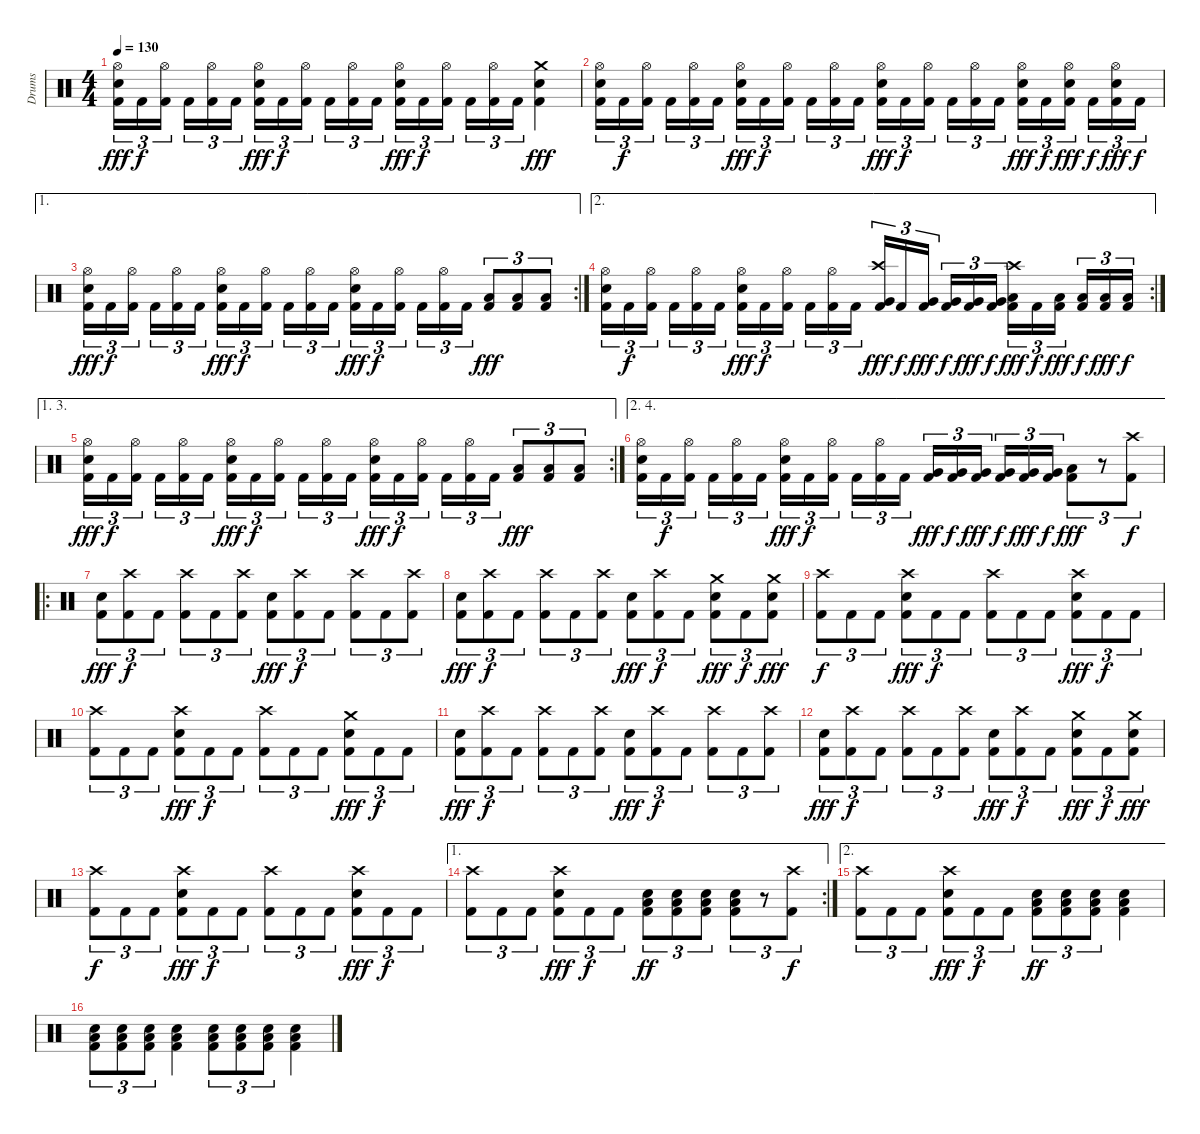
\track ("Drums" "Drums") {instrument percussion}
\staff {score}
\articulation defaults
\ts (4 4)
\tempo 130
\clef neutral
\ks c
("Hi-Hat (open)" "Snare (hit) 2" "Kick (hit) 2").16{tu (3 2) dy fff} "Kick (hit) 2".16{tu (3 2) dy f} ("Hi-Hat (open)" "Kick (hit) 2").16{tu (3 2)} "Kick (hit) 2".16{tu (3 2)} ("Hi-Hat (open)" "Kick (hit) 2").16{tu (3 2)} "Kick (hit) 2".16{tu (3 2)} ("Hi-Hat (open)" "Snare (hit) 2" "Kick (hit) 2").16{tu (3 2) dy fff} "Kick (hit) 2".16{tu (3 2) dy f} ("Hi-Hat (open)" "Kick (hit) 2").16{tu (3 2)} "Kick (hit) 2".16{tu (3 2)} ("Hi-Hat (open)" "Kick (hit) 2").16{tu (3 2)} "Kick (hit) 2".16{tu (3 2)} ("Hi-Hat (open)" "Snare (hit) 2" "Kick (hit) 2").16{tu (3 2) dy fff} "Kick (hit) 2".16{tu (3 2) dy f} ("Hi-Hat (open)" "Kick (hit) 2").16{tu (3 2)} "Kick (hit) 2".16{tu (3 2)} ("Hi-Hat (open)" "Kick (hit) 2").16{tu (3 2)} "Kick (hit) 2".16{tu (3 2)} ("Crash medium (hit)" "Snare (hit) 2" "Kick (hit) 2").4{dy fff} |
("Hi-Hat (open)" "Snare (hit) 2" "Kick (hit) 2").16{tu (3 2)} "Kick (hit) 2".16{tu (3 2) dy f} ("Hi-Hat (open)" "Kick (hit) 2").16{tu (3 2)} "Kick (hit) 2".16{tu (3 2)} ("Hi-Hat (open)" "Kick (hit) 2").16{tu (3 2)} "Kick (hit) 2".16{tu (3 2)} ("Hi-Hat (open)" "Snare (hit) 2" "Kick (hit) 2").16{tu (3 2) dy fff} "Kick (hit) 2".16{tu (3 2) dy f} ("Hi-Hat (open)" "Kick (hit) 2").16{tu (3 2)} "Kick (hit) 2".16{tu (3 2)} ("Hi-Hat (open)" "Kick (hit) 2").16{tu (3 2)} "Kick (hit) 2".16{tu (3 2)} ("Hi-Hat (open)" "Snare (hit) 2" "Kick (hit) 2").16{tu (3 2) dy fff} "Kick (hit) 2".16{tu (3 2) dy f} ("Hi-Hat (open)" "Kick (hit) 2").16{tu (3 2)} "Kick (hit) 2".16{tu (3 2)} ("Hi-Hat (open)" "Kick (hit) 2").16{tu (3 2)} "Kick (hit) 2".16{tu (3 2)} ("Hi-Hat (open)" "Snare (hit) 2" "Kick (hit) 2").16{tu (3 2) dy fff} "Kick (hit) 2".16{tu (3 2) dy f} ("Hi-Hat (open)" "Snare (hit) 2" "Kick (hit) 2").16{tu (3 2) dy fff} "Kick (hit) 2".16{tu (3 2) dy f} ("Hi-Hat (open)" "Snare (hit) 2" "Kick (hit) 2").16{tu (3 2) dy fff} "Kick (hit) 2".16{tu (3 2) dy f} |
\ae 1
\rc 2
("Hi-Hat (open)" "Snare (hit) 2" "Kick (hit) 2").16{tu (3 2) dy fff} "Kick (hit) 2".16{tu (3 2) dy f} ("Hi-Hat (open)" "Kick (hit) 2").16{tu (3 2)} "Kick (hit) 2".16{tu (3 2)} ("Hi-Hat (open)" "Kick (hit) 2").16{tu (3 2)} "Kick (hit) 2".16{tu (3 2)} ("Hi-Hat (open)" "Snare (hit) 2" "Kick (hit) 2").16{tu (3 2) dy fff} "Kick (hit) 2".16{tu (3 2) dy f} ("Hi-Hat (open)" "Kick (hit) 2").16{tu (3 2)} "Kick (hit) 2".16{tu (3 2)} ("Hi-Hat (open)" "Kick (hit) 2").16{tu (3 2)} "Kick (hit) 2".16{tu (3 2)} ("Hi-Hat (open)" "Snare (hit) 2" "Kick (hit) 2").16{tu (3 2) dy fff} "Kick (hit) 2".16{tu (3 2) dy f} ("Hi-Hat (open)" "Kick (hit) 2").16{tu (3 2)} "Kick (hit) 2".16{tu (3 2)} ("Hi-Hat (open)" "Kick (hit) 2").16{tu (3 2)} "Kick (hit) 2".16{tu (3 2)} ("Low Floor Tom (hit)" "Kick (hit) 2").8{tu (3 2) dy fff} ("Low Floor Tom (hit)" "Kick (hit) 2").8{tu (3 2)} ("Low Floor Tom (hit)" "Kick (hit) 2").8{tu (3 2)} |
\ae 2
\rc 2
("Hi-Hat (open)" "Snare (hit) 2" "Kick (hit) 2").16{tu (3 2)} "Kick (hit) 2".16{tu (3 2) dy f} ("Hi-Hat (open)" "Kick (hit) 2").16{tu (3 2)} "Kick (hit) 2".16{tu (3 2)} ("Hi-Hat (open)" "Kick (hit) 2").16{tu (3 2)} "Kick (hit) 2".16{tu (3 2)} ("Hi-Hat (open)" "Snare (hit) 2" "Kick (hit) 2").16{tu (3 2) dy fff} "Kick (hit) 2".16{tu (3 2) dy f} ("Hi-Hat (open)" "Kick (hit) 2").16{tu (3 2)} "Kick (hit) 2".16{tu (3 2)} ("Hi-Hat (open)" "Kick (hit) 2").16{tu (3 2)} "Kick (hit) 2".16{tu (3 2)} ("Crash high (hit)" "Very Low Tom (hit)" "Kick (hit) 2").16{tu (3 2) dy fff} "Kick (hit) 2".16{tu (3 2) dy f} ("Very Low Tom (hit)" "Kick (hit) 2").16{tu (3 2) dy fff} ("Very Low Tom (hit)" "Kick (hit) 2").16{tu (3 2) dy f} ("Very Low Tom (hit)" "Kick (hit) 2").16{tu (3 2) dy fff} ("Very Low Tom (hit)" "Kick (hit) 2").16{tu (3 2) dy f} ("Crash high (hit)" "Low Floor Tom (hit)" "Kick (hit) 2").16{tu (3 2) dy fff} "Kick (hit) 2".16{tu (3 2) dy f} ("Low Floor Tom (hit)" "Kick (hit) 2").16{tu (3 2) dy fff} ("Low Floor Tom (hit)" "Kick (hit) 2").16{tu (3 2) dy f} ("Low Floor Tom (hit)" "Kick (hit) 2").16{tu (3 2) dy fff} ("Low Floor Tom (hit)" "Kick (hit) 2").16{tu (3 2) dy f} |
\ae (1 3)
\rc 2
("Hi-Hat (open)" "Snare (hit) 2" "Kick (hit) 2").16{tu (3 2) dy fff} "Kick (hit) 2".16{tu (3 2) dy f} ("Hi-Hat (open)" "Kick (hit) 2").16{tu (3 2)} "Kick (hit) 2".16{tu (3 2)} ("Hi-Hat (open)" "Kick (hit) 2").16{tu (3 2)} "Kick (hit) 2".16{tu (3 2)} ("Hi-Hat (open)" "Snare (hit) 2" "Kick (hit) 2").16{tu (3 2) dy fff} "Kick (hit) 2".16{tu (3 2) dy f} ("Hi-Hat (open)" "Kick (hit) 2").16{tu (3 2)} "Kick (hit) 2".16{tu (3 2)} ("Hi-Hat (open)" "Kick (hit) 2").16{tu (3 2)} "Kick (hit) 2".16{tu (3 2)} ("Hi-Hat (open)" "Snare (hit) 2" "Kick (hit) 2").16{tu (3 2) dy fff} "Kick (hit) 2".16{tu (3 2) dy f} ("Hi-Hat (open)" "Kick (hit) 2").16{tu (3 2)} "Kick (hit) 2".16{tu (3 2)} ("Hi-Hat (open)" "Kick (hit) 2").16{tu (3 2)} "Kick (hit) 2".16{tu (3 2)} ("Low Floor Tom (hit)" "Kick (hit) 2").8{tu (3 2) dy fff} ("Low Floor Tom (hit)" "Kick (hit) 2").8{tu (3 2)} ("Low Floor Tom (hit)" "Kick (hit) 2").8{tu (3 2)} |
\ae (2 4)
("Hi-Hat (open)" "Snare (hit) 2" "Kick (hit) 2").16{tu (3 2)} "Kick (hit) 2".16{tu (3 2) dy f} ("Hi-Hat (open)" "Kick (hit) 2").16{tu (3 2)} "Kick (hit) 2".16{tu (3 2)} ("Hi-Hat (open)" "Kick (hit) 2").16{tu (3 2)} "Kick (hit) 2".16{tu (3 2)} ("Hi-Hat (open)" "Snare (hit) 2" "Kick (hit) 2").16{tu (3 2) dy fff} "Kick (hit) 2".16{tu (3 2) dy f} ("Hi-Hat (open)" "Kick (hit) 2").16{tu (3 2)} "Kick (hit) 2".16{tu (3 2)} ("Hi-Hat (open)" "Kick (hit) 2").16{tu (3 2)} "Kick (hit) 2".16{tu (3 2)} ("Very Low Tom (hit)" "Kick (hit) 2").16{tu (3 2) dy fff} ("Very Low Tom (hit)" "Kick (hit) 2").16{tu (3 2) dy f} ("Very Low Tom (hit)" "Kick (hit) 2").16{tu (3 2) dy fff} ("Very Low Tom (hit)" "Kick (hit) 2").16{tu (3 2) dy f} ("Very Low Tom (hit)" "Kick (hit) 2").16{tu (3 2) dy fff} ("Very Low Tom (hit)" "Kick (hit) 2").16{tu (3 2) dy f} ("Low Floor Tom (hit)" "Kick (hit) 2").8{tu (3 2) dy fff} r.8{tu (3 2)} ("Crash high (hit)" "Kick (hit) 2").8{tu (3 2) dy f} |
\ro
("Snare (hit) 2" "Kick (hit) 2").8{tu (3 2) dy fff} ("Crash high (hit)" "Kick (hit) 2").8{tu (3 2) dy f} "Kick (hit) 2".8{tu (3 2)} ("Crash high (hit)" "Kick (hit) 2").8{tu (3 2)} "Kick (hit) 2".8{tu (3 2)} ("Crash high (hit)" "Kick (hit) 2").8{tu (3 2)} ("Snare (hit) 2" "Kick (hit) 2").8{tu (3 2) dy fff} ("Crash high (hit)" "Kick (hit) 2").8{tu (3 2) dy f} "Kick (hit) 2".8{tu (3 2)} ("Crash high (hit)" "Kick (hit) 2").8{tu (3 2)} "Kick (hit) 2".8{tu (3 2)} ("Crash high (hit)" "Kick (hit) 2").8{tu (3 2)} |
("Snare (hit) 2" "Kick (hit) 2").8{tu (3 2) dy fff} ("Crash high (hit)" "Kick (hit) 2").8{tu (3 2) dy f} "Kick (hit) 2".8{tu (3 2)} ("Crash high (hit)" "Kick (hit) 2").8{tu (3 2)} "Kick (hit) 2".8{tu (3 2)} ("Crash high (hit)" "Kick (hit) 2").8{tu (3 2)} ("Snare (hit) 2" "Kick (hit) 2").8{tu (3 2) dy fff} ("Crash high (hit)" "Kick (hit) 2").8{tu (3 2) dy f} "Kick (hit) 2".8{tu (3 2)} ("Crash medium (hit)" "Snare (hit) 2" "Kick (hit) 2").8{tu (3 2) dy fff} "Kick (hit) 2".8{tu (3 2) dy f} ("Crash medium (hit)" "Snare (hit) 2" "Kick (hit) 2").8{tu (3 2) dy fff} |
("Crash high (hit)" "Kick (hit) 2").8{tu (3 2) dy f} "Kick (hit) 2".8{tu (3 2)} "Kick (hit) 2".8{tu (3 2)} ("Crash high (hit)" "Snare (hit) 2" "Kick (hit) 2").8{tu (3 2) dy fff} "Kick (hit) 2".8{tu (3 2) dy f} "Kick (hit) 2".8{tu (3 2)} ("Crash high (hit)" "Kick (hit) 2").8{tu (3 2)} "Kick (hit) 2".8{tu (3 2)} "Kick (hit) 2".8{tu (3 2)} ("Crash high (hit)" "Snare (hit) 2" "Kick (hit) 2").8{tu (3 2) dy fff} "Kick (hit) 2".8{tu (3 2) dy f} "Kick (hit) 2".8{tu (3 2)} |
("Crash high (hit)" "Kick (hit) 2").8{tu (3 2)} "Kick (hit) 2".8{tu (3 2)} "Kick (hit) 2".8{tu (3 2)} ("Crash high (hit)" "Snare (hit) 2" "Kick (hit) 2").8{tu (3 2) dy fff} "Kick (hit) 2".8{tu (3 2) dy f} "Kick (hit) 2".8{tu (3 2)} ("Crash high (hit)" "Kick (hit) 2").8{tu (3 2)} "Kick (hit) 2".8{tu (3 2)} "Kick (hit) 2".8{tu (3 2)} ("Crash medium (hit)" "Snare (hit) 2" "Kick (hit) 2").8{tu (3 2) dy fff} "Kick (hit) 2".8{tu (3 2) dy f} "Kick (hit) 2".8{tu (3 2)} |
("Snare (hit) 2" "Kick (hit) 2").8{tu (3 2) dy fff} ("Crash high (hit)" "Kick (hit) 2").8{tu (3 2) dy f} "Kick (hit) 2".8{tu (3 2)} ("Crash high (hit)" "Kick (hit) 2").8{tu (3 2)} "Kick (hit) 2".8{tu (3 2)} ("Crash high (hit)" "Kick (hit) 2").8{tu (3 2)} ("Snare (hit) 2" "Kick (hit) 2").8{tu (3 2) dy fff} ("Crash high (hit)" "Kick (hit) 2").8{tu (3 2) dy f} "Kick (hit) 2".8{tu (3 2)} ("Crash high (hit)" "Kick (hit) 2").8{tu (3 2)} "Kick (hit) 2".8{tu (3 2)} ("Crash high (hit)" "Kick (hit) 2").8{tu (3 2)} |
("Snare (hit) 2" "Kick (hit) 2").8{tu (3 2) dy fff} ("Crash high (hit)" "Kick (hit) 2").8{tu (3 2) dy f} "Kick (hit) 2".8{tu (3 2)} ("Crash high (hit)" "Kick (hit) 2").8{tu (3 2)} "Kick (hit) 2".8{tu (3 2)} ("Crash high (hit)" "Kick (hit) 2").8{tu (3 2)} ("Snare (hit) 2" "Kick (hit) 2").8{tu (3 2) dy fff} ("Crash high (hit)" "Kick (hit) 2").8{tu (3 2) dy f} "Kick (hit) 2".8{tu (3 2)} ("Crash medium (hit)" "Snare (hit) 2" "Kick (hit) 2").8{tu (3 2) dy fff} "Kick (hit) 2".8{tu (3 2) dy f} ("Crash medium (hit)" "Snare (hit) 2" "Kick (hit) 2").8{tu (3 2) dy fff} |
("Crash high (hit)" "Kick (hit) 2").8{tu (3 2) dy f} "Kick (hit) 2".8{tu (3 2)} "Kick (hit) 2".8{tu (3 2)} ("Crash high (hit)" "Snare (hit) 2" "Kick (hit) 2").8{tu (3 2) dy fff} "Kick (hit) 2".8{tu (3 2) dy f} "Kick (hit) 2".8{tu (3 2)} ("Crash high (hit)" "Kick (hit) 2").8{tu (3 2)} "Kick (hit) 2".8{tu (3 2)} "Kick (hit) 2".8{tu (3 2)} ("Crash high (hit)" "Snare (hit) 2" "Kick (hit) 2").8{tu (3 2) dy fff} "Kick (hit) 2".8{tu (3 2) dy f} "Kick (hit) 2".8{tu (3 2)} |
\ae 1
\rc 2
("Crash high (hit)" "Kick (hit) 2").8{tu (3 2)} "Kick (hit) 2".8{tu (3 2)} "Kick (hit) 2".8{tu (3 2)} ("Crash high (hit)" "Snare (hit) 2" "Kick (hit) 2").8{tu (3 2) dy fff} "Kick (hit) 2".8{tu (3 2) dy f} "Kick (hit) 2".8{tu (3 2)} ("Snare (hit) 2" "Low Floor Tom (hit)" "Kick (hit) 2").8{tu (3 2) dy ff} ("Snare (hit) 2" "Low Floor Tom (hit)" "Kick (hit) 2").8{tu (3 2)} ("Snare (hit) 2" "Low Floor Tom (hit)" "Kick (hit) 2").8{tu (3 2)} ("Snare (hit) 2" "Low Floor Tom (hit)" "Kick (hit) 2").8{tu (3 2)} r.8{tu (3 2)} ("Crash high (hit)" "Kick (hit) 2").8{tu (3 2) dy f} |
\ae 2
("Crash high (hit)" "Kick (hit) 2").8{tu (3 2)} "Kick (hit) 2".8{tu (3 2)} "Kick (hit) 2".8{tu (3 2)} ("Crash high (hit)" "Snare (hit) 2" "Kick (hit) 2").8{tu (3 2) dy fff} "Kick (hit) 2".8{tu (3 2) dy f} "Kick (hit) 2".8{tu (3 2)} ("Snare (hit) 2" "Low Floor Tom (hit)" "Kick (hit) 2").8{tu (3 2) dy ff} ("Snare (hit) 2" "Low Floor Tom (hit)" "Kick (hit) 2").8{tu (3 2)} ("Snare (hit) 2" "Low Floor Tom (hit)" "Kick (hit) 2").8{tu (3 2)} ("Snare (hit) 2" "Low Floor Tom (hit)" "Kick (hit) 2").4 |
("Snare (hit) 2" "Low Floor Tom (hit)" "Kick (hit) 2").8{tu (3 2)} ("Snare (hit) 2" "Low Floor Tom (hit)" "Kick (hit) 2").8{tu (3 2)} ("Snare (hit) 2" "Low Floor Tom (hit)" "Kick (hit) 2").8{tu (3 2)} ("Snare (hit) 2" "Low Floor Tom (hit)" "Kick (hit) 2").4 ("Snare (hit) 2" "Low Floor Tom (hit)" "Kick (hit) 2").8{tu (3 2)} ("Snare (hit) 2" "Low Floor Tom (hit)" "Kick (hit) 2").8{tu (3 2)} ("Snare (hit) 2" "Low Floor Tom (hit)" "Kick (hit) 2").8{tu (3 2)} ("Snare (hit) 2" "Low Floor Tom (hit)" "Kick (hit) 2").4
